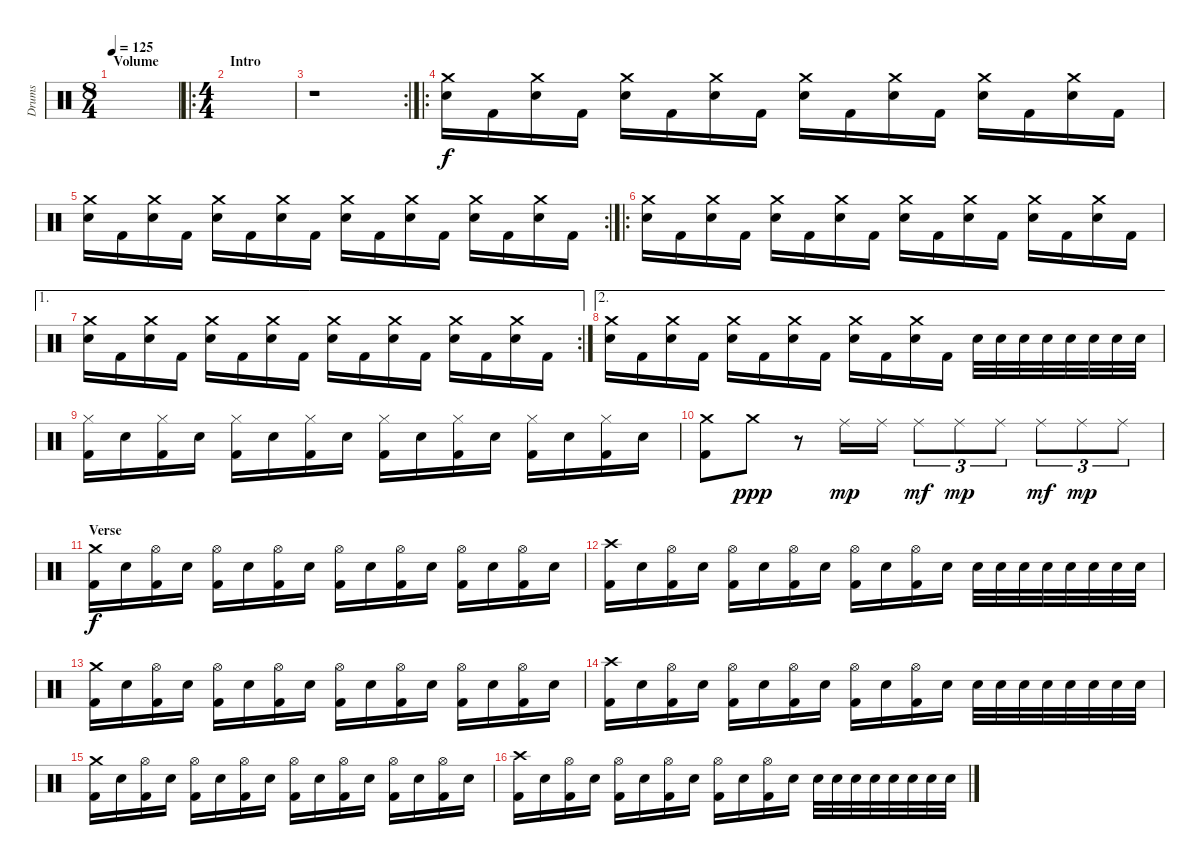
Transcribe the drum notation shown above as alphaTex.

\track ("Drums" "Drums") {instrument percussion}
\staff {score}
\articulation defaults
\ts (8 4)
\section ("" "Volume")
\tempo 125
\clef neutral
\ks c
|
\ro
\ts (4 4)
\section ("" "Intro")
|
\rc 2
r.1 |
\ro
("Crash medium (hit)" "Electric Snare (hit)").16 "Kick (hit) 2".16 ("Crash medium (hit)" "Electric Snare (hit)").16 "Kick (hit) 2".16 ("Crash medium (hit)" "Electric Snare (hit)").16 "Kick (hit) 2".16 ("Crash medium (hit)" "Electric Snare (hit)").16 "Kick (hit) 2".16 ("Crash medium (hit)" "Electric Snare (hit)").16 "Kick (hit) 2".16 ("Crash medium (hit)" "Electric Snare (hit)").16 "Kick (hit) 2".16 ("Crash medium (hit)" "Electric Snare (hit)").16 "Kick (hit) 2".16 ("Crash medium (hit)" "Electric Snare (hit)").16 "Kick (hit) 2".16 |
\rc 2
("Crash medium (hit)" "Electric Snare (hit)").16 "Kick (hit) 2".16 ("Crash medium (hit)" "Electric Snare (hit)").16 "Kick (hit) 2".16 ("Crash medium (hit)" "Electric Snare (hit)").16 "Kick (hit) 2".16 ("Crash medium (hit)" "Electric Snare (hit)").16 "Kick (hit) 2".16 ("Crash medium (hit)" "Electric Snare (hit)").16 "Kick (hit) 2".16 ("Crash medium (hit)" "Electric Snare (hit)").16 "Kick (hit) 2".16 ("Crash medium (hit)" "Electric Snare (hit)").16 "Kick (hit) 2".16 ("Crash medium (hit)" "Electric Snare (hit)").16 "Kick (hit) 2".16 |
\ro
("Crash medium (hit)" "Electric Snare (hit)").16 "Kick (hit) 2".16 ("Crash medium (hit)" "Electric Snare (hit)").16 "Kick (hit) 2".16 ("Crash medium (hit)" "Electric Snare (hit)").16 "Kick (hit) 2".16 ("Crash medium (hit)" "Electric Snare (hit)").16 "Kick (hit) 2".16 ("Crash medium (hit)" "Electric Snare (hit)").16 "Kick (hit) 2".16 ("Crash medium (hit)" "Electric Snare (hit)").16 "Kick (hit) 2".16 ("Crash medium (hit)" "Electric Snare (hit)").16 "Kick (hit) 2".16 ("Crash medium (hit)" "Electric Snare (hit)").16 "Kick (hit) 2".16 |
\ae 1
\rc 2
("Crash medium (hit)" "Electric Snare (hit)").16 "Kick (hit) 2".16 ("Crash medium (hit)" "Electric Snare (hit)").16 "Kick (hit) 2".16 ("Crash medium (hit)" "Electric Snare (hit)").16 "Kick (hit) 2".16 ("Crash medium (hit)" "Electric Snare (hit)").16 "Kick (hit) 2".16 ("Crash medium (hit)" "Electric Snare (hit)").16 "Kick (hit) 2".16 ("Crash medium (hit)" "Electric Snare (hit)").16 "Kick (hit) 2".16 ("Crash medium (hit)" "Electric Snare (hit)").16 "Kick (hit) 2".16 ("Crash medium (hit)" "Electric Snare (hit)").16 "Kick (hit) 2".16 |
\ae 2
("Crash medium (hit)" "Electric Snare (hit)").16 "Kick (hit) 2".16 ("Crash medium (hit)" "Electric Snare (hit)").16 "Kick (hit) 2".16 ("Crash medium (hit)" "Electric Snare (hit)").16 "Kick (hit) 2".16 ("Crash medium (hit)" "Electric Snare (hit)").16 "Kick (hit) 2".16 ("Crash medium (hit)" "Electric Snare (hit)").16 "Kick (hit) 2".16 ("Crash medium (hit)" "Electric Snare (hit)").16 "Kick (hit) 2".16 "Electric Snare (hit)".32 "Electric Snare (hit)".32 "Electric Snare (hit)".32 "Electric Snare (hit)".32 "Electric Snare (hit)".32 "Electric Snare (hit)".32 "Electric Snare (hit)".32 "Electric Snare (hit)".32 |
("Hi-Hat (closed)" "Kick (hit) 2").16 "Electric Snare (hit)".16 ("Hi-Hat (closed)" "Kick (hit) 2").16 "Electric Snare (hit)".16 ("Hi-Hat (closed)" "Kick (hit) 2").16 "Electric Snare (hit)".16 ("Hi-Hat (closed)" "Kick (hit) 2").16 "Electric Snare (hit)".16 ("Hi-Hat (closed)" "Kick (hit) 2").16 "Electric Snare (hit)".16 ("Hi-Hat (closed)" "Kick (hit) 2").16 "Electric Snare (hit)".16 ("Hi-Hat (closed)" "Kick (hit) 2").16 "Electric Snare (hit)".16 ("Hi-Hat (closed)" "Kick (hit) 2").16 "Electric Snare (hit)".16 |
("Crash medium (hit)" "Kick (hit) 2").8 "Crash medium (hit)".8{dy ppp} r.8 "Ride (middle)".16{dy mp} "Ride (middle)".16 "Ride (middle)".8{tu (3 2) dy mf} "Ride (middle)".8{tu (3 2) dy mp} "Ride (middle)".8{tu (3 2)} "Ride (middle)".8{tu (3 2) dy mf} "Ride (middle)".8{tu (3 2) dy mp} "Ride (middle)".8{tu (3 2)} |
\section ("" "Verse")
("Crash medium (hit)" "Kick (hit) 2").16{dy f} "Electric Snare (hit)".16 ("Hi-Hat (open)" "Kick (hit) 2").16 "Electric Snare (hit)".16 ("Hi-Hat (open)" "Kick (hit) 2").16 "Electric Snare (hit)".16 ("Hi-Hat (open)" "Kick (hit) 2").16 "Electric Snare (hit)".16 ("Hi-Hat (open)" "Kick (hit) 2").16 "Electric Snare (hit)".16 ("Hi-Hat (open)" "Kick (hit) 2").16 "Electric Snare (hit)".16 ("Hi-Hat (open)" "Kick (hit) 2").16 "Electric Snare (hit)".16 ("Hi-Hat (open)" "Kick (hit) 2").16 "Electric Snare (hit)".16 |
("Crash high (hit)" "Kick (hit) 2").16 "Electric Snare (hit)".16 ("Hi-Hat (open)" "Kick (hit) 2").16 "Electric Snare (hit)".16 ("Hi-Hat (open)" "Kick (hit) 2").16 "Electric Snare (hit)".16 ("Hi-Hat (open)" "Kick (hit) 2").16 "Electric Snare (hit)".16 ("Hi-Hat (open)" "Kick (hit) 2").16 "Electric Snare (hit)".16 ("Hi-Hat (open)" "Kick (hit) 2").16 "Electric Snare (hit)".16 "Electric Snare (hit)".32 "Electric Snare (hit)".32 "Electric Snare (hit)".32 "Electric Snare (hit)".32 "Electric Snare (hit)".32 "Electric Snare (hit)".32 "Electric Snare (hit)".32 "Electric Snare (hit)".32 |
("Crash medium (hit)" "Kick (hit) 2").16 "Electric Snare (hit)".16 ("Hi-Hat (open)" "Kick (hit) 2").16 "Electric Snare (hit)".16 ("Hi-Hat (open)" "Kick (hit) 2").16 "Electric Snare (hit)".16 ("Hi-Hat (open)" "Kick (hit) 2").16 "Electric Snare (hit)".16 ("Hi-Hat (open)" "Kick (hit) 2").16 "Electric Snare (hit)".16 ("Hi-Hat (open)" "Kick (hit) 2").16 "Electric Snare (hit)".16 ("Hi-Hat (open)" "Kick (hit) 2").16 "Electric Snare (hit)".16 ("Hi-Hat (open)" "Kick (hit) 2").16 "Electric Snare (hit)".16 |
("Crash high (hit)" "Kick (hit) 2").16 "Electric Snare (hit)".16 ("Hi-Hat (open)" "Kick (hit) 2").16 "Electric Snare (hit)".16 ("Hi-Hat (open)" "Kick (hit) 2").16 "Electric Snare (hit)".16 ("Hi-Hat (open)" "Kick (hit) 2").16 "Electric Snare (hit)".16 ("Hi-Hat (open)" "Kick (hit) 2").16 "Electric Snare (hit)".16 ("Hi-Hat (open)" "Kick (hit) 2").16 "Electric Snare (hit)".16 "Electric Snare (hit)".32 "Electric Snare (hit)".32 "Electric Snare (hit)".32 "Electric Snare (hit)".32 "Electric Snare (hit)".32 "Electric Snare (hit)".32 "Electric Snare (hit)".32 "Electric Snare (hit)".32 |
("Crash medium (hit)" "Kick (hit) 2").16 "Electric Snare (hit)".16 ("Hi-Hat (open)" "Kick (hit) 2").16 "Electric Snare (hit)".16 ("Hi-Hat (open)" "Kick (hit) 2").16 "Electric Snare (hit)".16 ("Hi-Hat (open)" "Kick (hit) 2").16 "Electric Snare (hit)".16 ("Hi-Hat (open)" "Kick (hit) 2").16 "Electric Snare (hit)".16 ("Hi-Hat (open)" "Kick (hit) 2").16 "Electric Snare (hit)".16 ("Hi-Hat (open)" "Kick (hit) 2").16 "Electric Snare (hit)".16 ("Hi-Hat (open)" "Kick (hit) 2").16 "Electric Snare (hit)".16 |
("Crash high (hit)" "Kick (hit) 2").16 "Electric Snare (hit)".16 ("Hi-Hat (open)" "Kick (hit) 2").16 "Electric Snare (hit)".16 ("Hi-Hat (open)" "Kick (hit) 2").16 "Electric Snare (hit)".16 ("Hi-Hat (open)" "Kick (hit) 2").16 "Electric Snare (hit)".16 ("Hi-Hat (open)" "Kick (hit) 2").16 "Electric Snare (hit)".16 ("Hi-Hat (open)" "Kick (hit) 2").16 "Electric Snare (hit)".16 "Electric Snare (hit)".32 "Electric Snare (hit)".32 "Electric Snare (hit)".32 "Electric Snare (hit)".32 "Electric Snare (hit)".32 "Electric Snare (hit)".32 "Electric Snare (hit)".32 "Electric Snare (hit)".32
